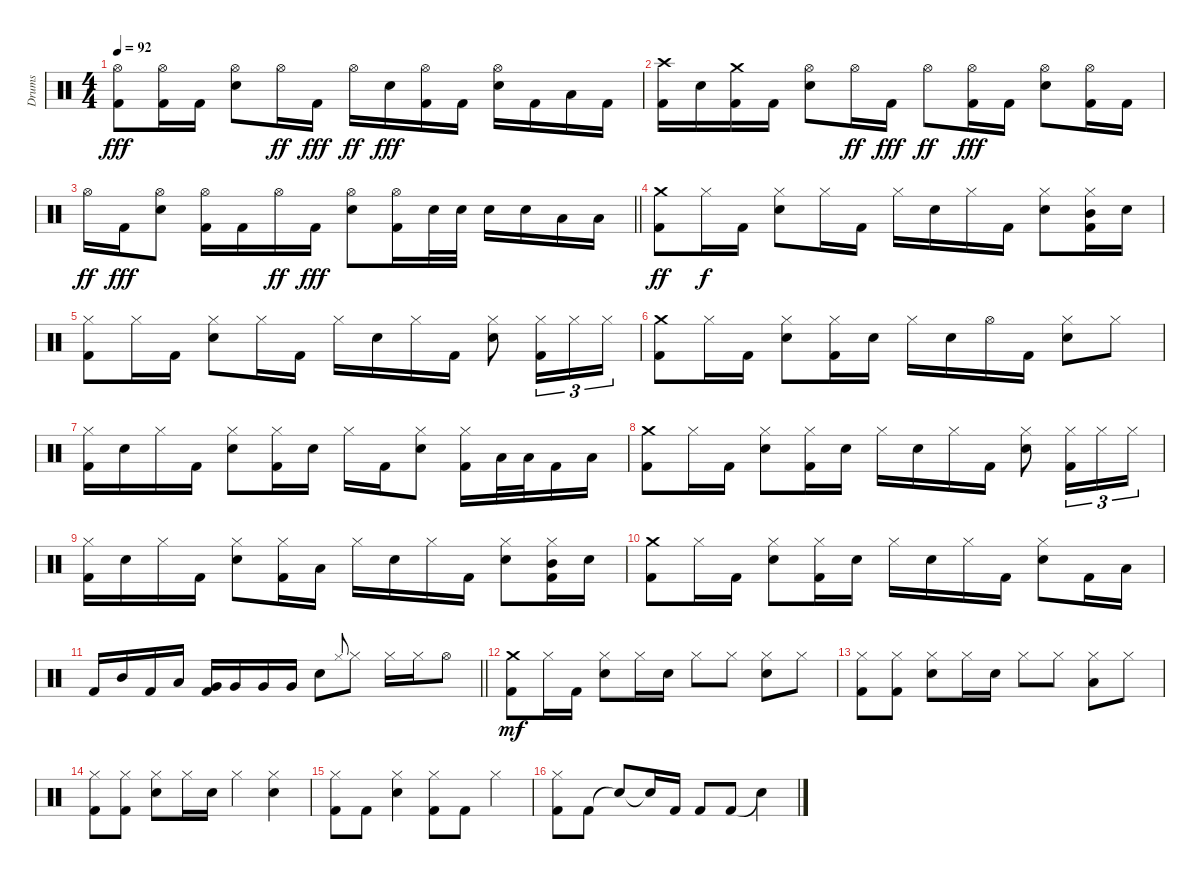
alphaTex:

\track ("Drums" "Drums") {instrument percussion}
\staff {score}
\articulation defaults
\ts (4 4)
\tempo 92
\clef neutral
\ks c
("Hi-Hat (open)" "Kick (hit) 2").8{dy fff} ("Hi-Hat (open)" "Kick (hit) 2").16 "Kick (hit) 2".16 ("Hi-Hat (open)" "Snare (hit) 2").8 "Hi-Hat (open)".16{dy ff} "Kick (hit) 2".16{dy fff} "Hi-Hat (open)".16{dy ff} "Snare (hit) 2".16{dy fff} ("Hi-Hat (open)" "Kick (hit) 2").16 "Kick (hit) 2".16 ("Hi-Hat (open)" "Snare (hit) 2").16 "Kick (hit) 2".16 "Low Tom (hit)".16 "Kick (hit) 2".16 |
("Crash high (hit)" "Kick (hit) 2").16 "Snare (hit) 2".16 ("Crash medium (hit)" "Kick (hit) 2").16 "Kick (hit) 2".16 ("Hi-Hat (open)" "Snare (hit) 2").8 "Hi-Hat (open)".16{dy ff} "Kick (hit) 2".16{dy fff} "Hi-Hat (open)".8{dy ff} ("Hi-Hat (open)" "Kick (hit) 2").16{dy fff} "Kick (hit) 2".16 ("Hi-Hat (open)" "Snare (hit) 2").8 ("Hi-Hat (open)" "Kick (hit) 2").16 "Kick (hit) 2".16 |
\barLineRight lightlight "Hi-Hat (open)".16{dy ff} "Kick (hit) 2".16{dy fff}
("Hi-Hat (open)" "Snare (hit) 2").8 ("Hi-Hat (open)" "Kick (hit) 2").16 "Kick (hit) 2".16 "Hi-Hat (open)".16{dy ff} "Kick (hit) 2".16{dy fff} ("Hi-Hat (open)" "Snare (hit) 2").8 ("Hi-Hat (open)" "Kick (hit) 2").16 "Snare (hit) 2".32 "Snare (hit) 2".32 "Snare (hit) 2".16 "Snare (hit) 2".16 "Low Tom (hit)".16 "Low Tom (hit)".16 |
\section ("" "")
("Crash medium (hit)" "Kick (hit) 2").8{dy ff} "Hi-Hat (closed)".16{dy f} "Kick (hit) 2".16 ("Hi-Hat (closed)" "Snare (hit) 2").8 "Hi-Hat (closed)".16 "Kick (hit) 2".16 "Hi-Hat (closed)".16 "Snare (hit) 2".16 "Hi-Hat (closed)".16 "Kick (hit) 2".16 ("Hi-Hat (closed)" "Snare (hit) 2").8 ("Hi-Hat (closed)" "Mid Tom (hit)" "Kick (hit) 2").16 "Snare (hit) 2".16 |
("Hi-Hat (closed)" "Kick (hit) 2").8 "Hi-Hat (closed)".16 "Kick (hit) 2".16 ("Hi-Hat (closed)" "Snare (hit) 2").8 "Hi-Hat (closed)".16 "Kick (hit) 2".16 "Hi-Hat (closed)".16 "Snare (hit) 2".16 "Hi-Hat (closed)".16 "Kick (hit) 2".16 ("Hi-Hat (closed)" "Snare (hit) 2").8 ("Hi-Hat (closed)" "Kick (hit) 2").16{tu (3 2)} "Hi-Hat (closed)".16{tu (3 2)} "Hi-Hat (closed)".16{tu (3 2)} |
("Crash medium (hit)" "Kick (hit) 2").8 "Hi-Hat (closed)".16 "Kick (hit) 2".16 ("Hi-Hat (closed)" "Snare (hit) 2").8 ("Hi-Hat (closed)" "Kick (hit) 2").16 "Snare (hit) 2".16 "Hi-Hat (closed)".16 "Snare (hit) 2".16 "Hi-Hat (open)".16 "Kick (hit) 2".16 ("Hi-Hat (closed)" "Snare (hit) 2").8 "Hi-Hat (closed)".8 |
("Hi-Hat (closed)" "Kick (hit) 2").16 "Snare (hit) 2".16 "Hi-Hat (closed)".16 "Kick (hit) 2".16 ("Hi-Hat (closed)" "Snare (hit) 2").8 ("Hi-Hat (closed)" "Kick (hit) 2").16 "Snare (hit) 2".16 "Hi-Hat (closed)".16 "Kick (hit) 2".16 ("Hi-Hat (closed)" "Snare (hit) 2").8 ("Hi-Hat (closed)" "Kick (hit) 2").16 "Low Tom (hit)".32 "Low Tom (hit)".32 "Kick (hit) 2".16 "Low Tom (hit)".16 |
("Crash medium (hit)" "Kick (hit) 2").8 "Hi-Hat (closed)".16 "Kick (hit) 2".16 ("Hi-Hat (closed)" "Snare (hit) 2").8 ("Hi-Hat (closed)" "Kick (hit) 2").16 "Snare (hit) 2".16 "Hi-Hat (closed)".16 "Snare (hit) 2".16 "Hi-Hat (closed)".16 "Kick (hit) 2".16 ("Hi-Hat (closed)" "Snare (hit) 2").8 ("Hi-Hat (closed)" "Kick (hit) 2").16{tu (3 2)} "Hi-Hat (closed)".16{tu (3 2)} "Hi-Hat (closed)".16{tu (3 2)} |
("Hi-Hat (closed)" "Kick (hit) 2").16 "Snare (hit) 2".16 "Hi-Hat (closed)".16 "Kick (hit) 2".16 ("Hi-Hat (closed)" "Snare (hit) 2").8 ("Hi-Hat (closed)" "Kick (hit) 2").16 "Low Tom (hit)".16 "Hi-Hat (closed)".16 "Snare (hit) 2".16 "Hi-Hat (closed)".16 "Kick (hit) 2".16 ("Hi-Hat (closed)" "Snare (hit) 2").8 ("Hi-Hat (closed)" "Mid Tom (hit)" "Kick (hit) 2").16 "Snare (hit) 2".16 |
("Crash medium (hit)" "Kick (hit) 2").8 "Hi-Hat (closed)".16 "Kick (hit) 2".16 ("Hi-Hat (closed)" "Snare (hit) 2").8 ("Hi-Hat (closed)" "Kick (hit) 2").16 "Snare (hit) 2".16 "Hi-Hat (closed)".16 "Snare (hit) 2".16 "Hi-Hat (closed)".16 "Kick (hit) 2".16 ("Hi-Hat (closed)" "Snare (hit) 2").8 "Kick (hit) 2".16 "Low Tom (hit)".16 |
\barLineRight lightlight "Kick (hit) 2".16 "Mid Tom (hit)".16 "Kick (hit) 2".16 "Low Tom (hit)".16
("Very Low Tom (hit)" "Kick (hit) 2").16 "Very Low Tom (hit)".16 "Very Low Tom (hit)".16 "Very Low Tom (hit)".16 "Snare (hit) 2".8 "Hi-Hat (closed)".8{gr onbeat} "Hi-Hat (closed)".8 "Hi-Hat (closed)".16 "Hi-Hat (closed)".16 "Hi-Hat (open)".8 |
\section ("" "")
("Crash medium (hit)" "Kick (hit) 2").8{dy mf} "Hi-Hat (closed)".16 "Kick (hit) 2".16 ("Hi-Hat (closed)" "Snare (hit) 2").8 "Hi-Hat (closed)".16 "Snare (hit) 2".16 "Hi-Hat (closed)".8 "Hi-Hat (closed)".8 ("Hi-Hat (closed)" "Snare (hit) 2").8 "Hi-Hat (closed)".8 |
("Hi-Hat (closed)" "Kick (hit) 2").8 ("Hi-Hat (closed)" "Kick (hit) 2").8 ("Hi-Hat (closed)" "Snare (hit) 2").8 "Hi-Hat (closed)".16 "Snare (hit) 2".16 "Hi-Hat (closed)".8 "Hi-Hat (closed)".8 ("Hi-Hat (closed)" "Low Tom (hit)").8 "Hi-Hat (closed)".8 |
("Hi-Hat (closed)" "Kick (hit) 2").8 ("Hi-Hat (closed)" "Kick (hit) 2").8 ("Hi-Hat (closed)" "Snare (hit) 2").8 "Hi-Hat (closed)".16 "Snare (hit) 2".16 "Hi-Hat (closed)".4 ("Hi-Hat (closed)" "Snare (hit) 2").4 |
("Hi-Hat (closed)" "Kick (hit) 2").8 "Kick (hit) 2".8 ("Hi-Hat (closed)" "Snare (hit) 2").4 ("Hi-Hat (closed)" "Kick (hit) 2").8 "Kick (hit) 2".8 "Hi-Hat (closed)".4 |
("Hi-Hat (closed)" "Kick (hit) 2").8 "Kick (hit) 2".8 "Snare (hit)"{t}.8 "Snare (hit)"{t}.16 "Kick (hit) 2".16 "Kick (hit) 2".8 "Kick (hit) 2".8 "Snare (hit)"{t}.4
